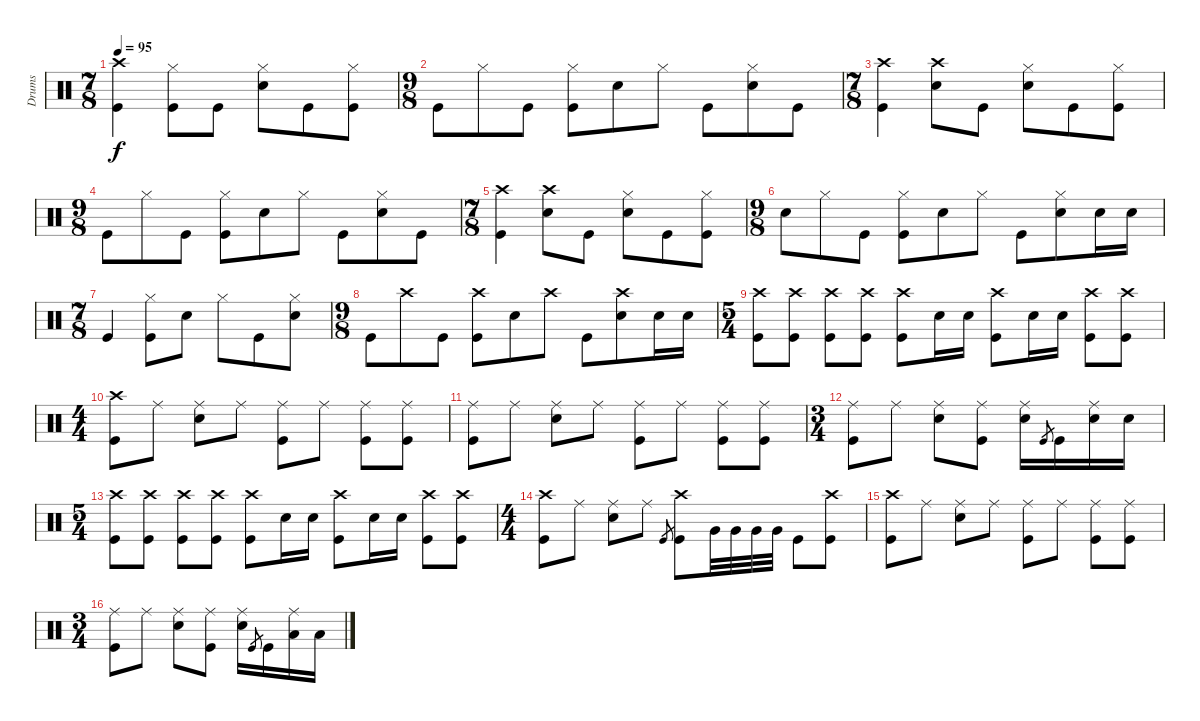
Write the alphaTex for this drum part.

\track ("Drums" "Drums") {instrument percussion}
\staff {score}
\articulation defaults
\ts (7 8)
\tempo 95
\clef neutral
\ks c
("Crash high (hit)" "Kick (hit)").4{dy f} ("Hi-Hat (closed)" "Kick (hit)").8 "Kick (hit)".8 ("Hi-Hat (closed)" "Electric Snare (hit)").8 "Kick (hit)".8 ("Hi-Hat (closed)" "Kick (hit)").8 |
\ts (9 8)
"Kick (hit)".8 "Hi-Hat (closed)".8 "Kick (hit)".8 ("Hi-Hat (closed)" "Kick (hit)").8 "Electric Snare (hit)".8 "Hi-Hat (closed)".8 "Kick (hit)".8 ("Hi-Hat (closed)" "Electric Snare (hit)").8 "Kick (hit)".8 |
\ts (7 8)
("Crash high (hit)" "Kick (hit)").4 ("Crash high (hit)" "Electric Snare (hit)").8 "Kick (hit)".8 ("Hi-Hat (closed)" "Electric Snare (hit)").8 "Kick (hit)".8 ("Hi-Hat (closed)" "Kick (hit)").8 |
\ts (9 8)
"Kick (hit)".8 "Hi-Hat (closed)".8 "Kick (hit)".8 ("Hi-Hat (closed)" "Kick (hit)").8 "Electric Snare (hit)".8 "Hi-Hat (closed)".8 "Kick (hit)".8 ("Hi-Hat (closed)" "Electric Snare (hit)").8 "Kick (hit)".8 |
\ts (7 8)
("Crash high (hit)" "Kick (hit)").4 ("Crash high (hit)" "Electric Snare (hit)").8 "Kick (hit)".8 ("Hi-Hat (closed)" "Electric Snare (hit)").8 "Kick (hit)".8 ("Hi-Hat (closed)" "Kick (hit)").8 |
\ts (9 8)
"Electric Snare (hit)".8 "Hi-Hat (closed)".8 "Kick (hit)".8 ("Hi-Hat (closed)" "Kick (hit)").8 "Electric Snare (hit)".8 "Hi-Hat (closed)".8 "Kick (hit)".8 ("Hi-Hat (closed)" "Electric Snare (hit)").8 "Electric Snare (hit)".16 "Electric Snare (hit)".16 |
\ts (7 8)
"Kick (hit)".4 ("Hi-Hat (closed)" "Kick (hit)").8 "Electric Snare (hit)".8 "Hi-Hat (closed)".8 "Kick (hit)".8 ("Hi-Hat (closed)" "Electric Snare (hit)").8 |
\ts (9 8)
"Kick (hit)".8 "Crash high (hit)".8 "Kick (hit)".8 ("Crash high (hit)" "Kick (hit)").8 "Electric Snare (hit)".8 "Crash high (hit)".8 "Kick (hit)".8 ("Crash high (hit)" "Electric Snare (hit)").8 "Electric Snare (hit)".16 "Electric Snare (hit)".16 |
\ts (5 4)
("Crash high (hit)" "Kick (hit)").8 ("Crash high (hit)" "Kick (hit)").8 ("Crash high (hit)" "Kick (hit)").8 ("Crash high (hit)" "Kick (hit)").8 ("Crash high (hit)" "Kick (hit)").8 "Electric Snare (hit)".16 "Electric Snare (hit)".16 ("Crash high (hit)" "Kick (hit)").8 "Electric Snare (hit)".16 "Electric Snare (hit)".16 ("Crash high (hit)" "Kick (hit)").8 ("Crash high (hit)" "Kick (hit)").8 |
\ts (4 4)
("Crash high (hit)" "Kick (hit)").8 "Ride (middle)".8 ("Ride (middle)" "Electric Snare (hit)").8 "Ride (middle)".8 ("Ride (middle)" "Kick (hit)").8 "Ride (middle)".8 ("Ride (middle)" "Kick (hit)").8 ("Ride (middle)" "Kick (hit)").8 |
("Ride (middle)" "Kick (hit)").8 "Ride (middle)".8 ("Ride (middle)" "Electric Snare (hit)").8 "Ride (middle)".8 ("Ride (middle)" "Kick (hit)").8 "Ride (middle)".8 ("Ride (middle)" "Kick (hit)").8 ("Ride (middle)" "Kick (hit)").8 |
\ts (3 4)
("Ride (middle)" "Kick (hit)").8 "Ride (middle)".8 ("Ride (middle)" "Electric Snare (hit)").8 ("Ride (middle)" "Kick (hit)").8 ("Ride (middle)" "Electric Snare (hit)").16 "Kick (hit)".8{gr} "Kick (hit)".16 ("Ride (middle)" "Electric Snare (hit)").16 "Electric Snare (hit)".16 |
\ts (5 4)
("Crash high (hit)" "Kick (hit)").8 ("Crash high (hit)" "Kick (hit)").8 ("Crash high (hit)" "Kick (hit)").8 ("Crash high (hit)" "Kick (hit)").8 ("Crash high (hit)" "Kick (hit)").8 "Electric Snare (hit)".16 "Electric Snare (hit)".16 ("Crash high (hit)" "Kick (hit)").8 "Electric Snare (hit)".16 "Electric Snare (hit)".16 ("Crash high (hit)" "Kick (hit)").8 ("Crash high (hit)" "Kick (hit)").8 |
\ts (4 4)
("Crash high (hit)" "Kick (hit)").8 "Ride (middle)".8 ("Ride (middle)" "Electric Snare (hit)").8 "Ride (middle)".8 "Kick (hit)".8{gr} ("Crash high (hit)" "Kick (hit)").8 "Very Low Tom (hit)".32 "Very Low Tom (hit)".32 "Very Low Tom (hit)".32 "Very Low Tom (hit)".32 "Kick (hit)".8 ("Crash high (hit)" "Kick (hit)").8 |
("Crash high (hit)" "Kick (hit)").8 "Ride (middle)".8 ("Ride (middle)" "Electric Snare (hit)").8 "Ride (middle)".8 ("Ride (middle)" "Kick (hit)").8 "Ride (middle)".8 ("Ride (middle)" "Kick (hit)").8 ("Ride (middle)" "Kick (hit)").8 |
\ts (3 4)
("Ride (middle)" "Kick (hit)").8 "Ride (middle)".8 ("Ride (middle)" "Electric Snare (hit)").8 ("Ride (middle)" "Kick (hit)").8 ("Ride (middle)" "Electric Snare (hit)").16 "Kick (hit)".8{gr} "Kick (hit)".16 ("Ride (middle)" "Low Tom (hit)").16 "Low Tom (hit)".16
